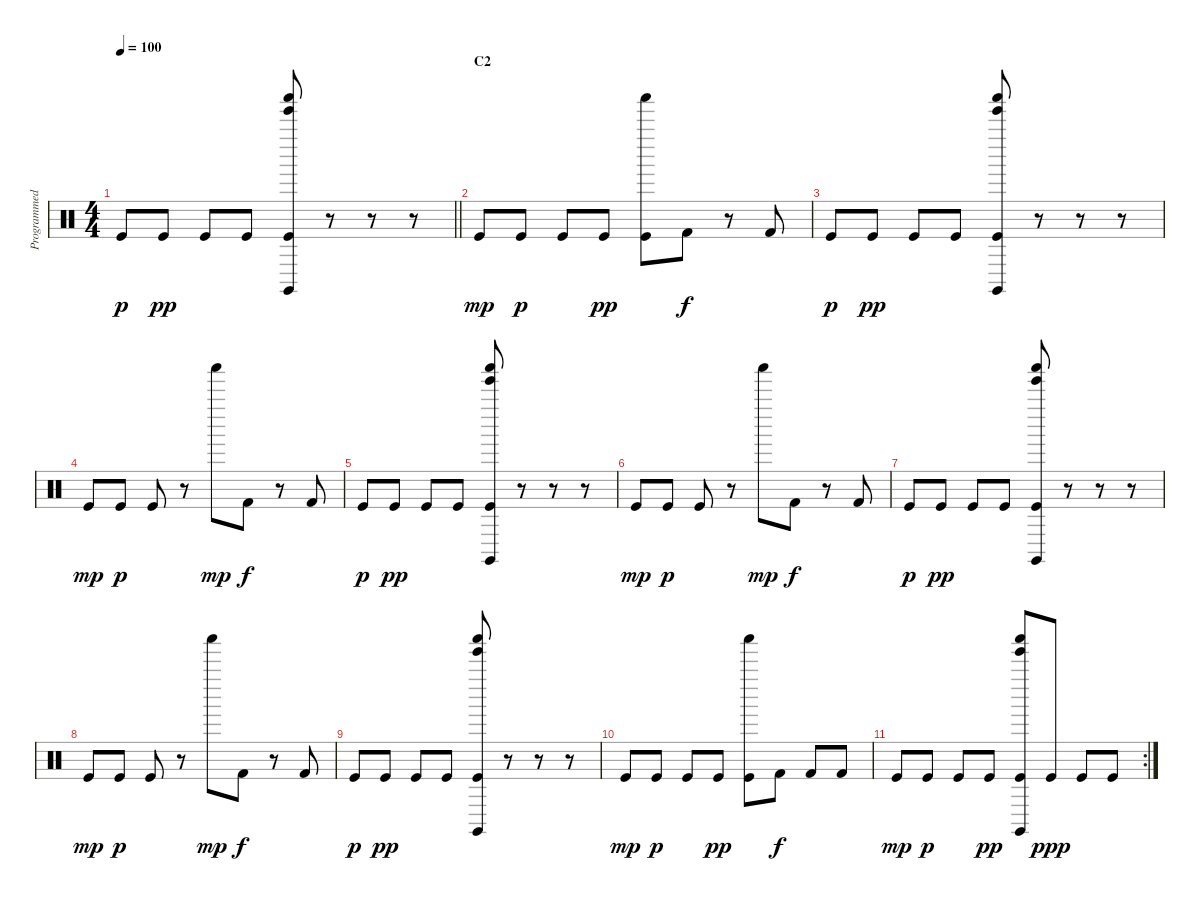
\track ("Programmed Drums" "Programmed") {instrument percussion}
\staff {score}
\articulation defaults
\ts (4 4)
\tempo 100
\clef neutral
\barLineRight lightlight
\ks c "Kick (hit)".8{dy p balance 13} "Kick (hit)".8{dy pp balance 3} "Kick (hit)".8{balance 13} "Kick (hit)".8{balance 3}
("Shaker (hit)" "Tinkle Bell (hit)" "Claves (hit)" "Kick (hit)").8{balance 5} r.8 r.8 r.8 |
\section ("" "C2")
"Kick (hit)".8{dy mp balance 13} "Kick (hit)".8{dy p balance 3} "Kick (hit)".8{balance 13} "Kick (hit)".8{dy pp balance 3} ("Shaker (hit)" "Kick (hit)").8{balance 5} "Kick (hit) 2".8{dy f balance 6} r.8 "Kick (hit) 2".8 |
"Kick (hit)".8{dy p balance 13} "Kick (hit)".8{dy pp balance 3} "Kick (hit)".8{balance 13} "Kick (hit)".8{balance 3} ("Shaker (hit)" "Tinkle Bell (hit)" "Claves (hit)" "Kick (hit)").8{balance 5} r.8 r.8 r.8 |
"Kick (hit)".8{dy mp balance 13} "Kick (hit)".8{dy p balance 3} "Kick (hit)".8{balance 13} r.8{balance 3} "Shaker (hit)".8{dy mp balance 5} "Kick (hit) 2".8{dy f balance 6} r.8 "Kick (hit) 2".8 |
"Kick (hit)".8{dy p balance 13} "Kick (hit)".8{dy pp balance 3} "Kick (hit)".8{balance 13} "Kick (hit)".8{balance 3} ("Shaker (hit)" "Tinkle Bell (hit)" "Claves (hit)" "Kick (hit)").8{balance 5} r.8 r.8 r.8 |
"Kick (hit)".8{dy mp balance 13} "Kick (hit)".8{dy p balance 3} "Kick (hit)".8{balance 13} r.8{balance 3} "Shaker (hit)".8{dy mp balance 5} "Kick (hit) 2".8{dy f balance 6} r.8 "Kick (hit) 2".8 |
"Kick (hit)".8{dy p balance 13} "Kick (hit)".8{dy pp balance 3} "Kick (hit)".8{balance 13} "Kick (hit)".8{balance 3} ("Shaker (hit)" "Tinkle Bell (hit)" "Claves (hit)" "Kick (hit)").8{balance 5} r.8 r.8 r.8 |
"Kick (hit)".8{dy mp balance 13} "Kick (hit)".8{dy p balance 3} "Kick (hit)".8{balance 13} r.8{balance 3} "Shaker (hit)".8{dy mp balance 5} "Kick (hit) 2".8{dy f balance 6} r.8 "Kick (hit) 2".8 |
"Kick (hit)".8{dy p balance 13} "Kick (hit)".8{dy pp balance 3} "Kick (hit)".8{balance 13} "Kick (hit)".8{balance 3} ("Shaker (hit)" "Tinkle Bell (hit)" "Claves (hit)" "Kick (hit)").8{balance 5} r.8 r.8 r.8 |
"Kick (hit)".8{dy mp balance 13} "Kick (hit)".8{dy p balance 3} "Kick (hit)".8{balance 13} "Kick (hit)".8{dy pp balance 3} ("Shaker (hit)" "Kick (hit)").8{balance 5} "Kick (hit) 2".8{dy f balance 6} "Kick (hit) 2".8 "Kick (hit) 2".8 |
\rc 2 "Kick (hit)".8{dy mp balance 13} "Kick (hit)".8{dy p balance 3} "Kick (hit)".8{balance 13} "Kick (hit)".8{dy pp balance 3}
("Shaker (hit)" "Tinkle Bell (hit)" "Claves (hit)" "Kick (hit)").8{balance 5} "Kick (hit)".8{dy ppp} "Kick (hit)".8 "Kick (hit)".8
